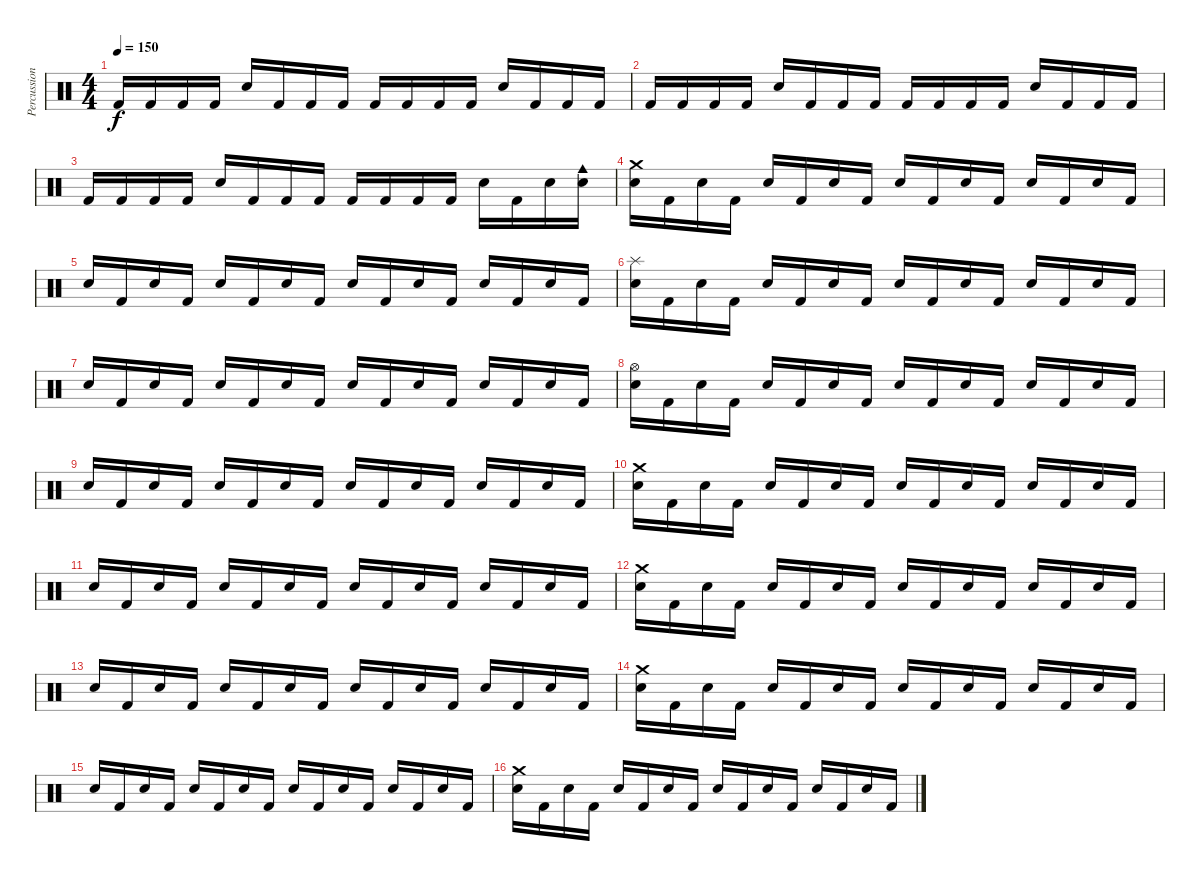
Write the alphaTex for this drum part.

\track ("Percussion" "Percussion") {instrument percussion}
\staff {score}
\articulation defaults
\ts (4 4)
\tempo 150
\clef neutral
\ks c "Kick (hit) 2".16{dy f} "Kick (hit) 2".16 "Kick (hit) 2".16 "Kick (hit) 2".16 "Snare (hit) 2".16 "Kick (hit) 2".16 "Kick (hit) 2".16 "Kick (hit) 2".16 "Kick (hit) 2".16 "Kick (hit) 2".16 "Kick (hit) 2".16 "Kick (hit) 2".16 "Snare (hit) 2".16 "Kick (hit) 2".16 "Kick (hit) 2".16 "Kick (hit) 2".16
|
"Kick (hit) 2".16 "Kick (hit) 2".16 "Kick (hit) 2".16 "Kick (hit) 2".16 "Snare (hit) 2".16 "Kick (hit) 2".16 "Kick (hit) 2".16 "Kick (hit) 2".16 "Kick (hit) 2".16 "Kick (hit) 2".16 "Kick (hit) 2".16 "Kick (hit) 2".16 "Snare (hit) 2".16 "Kick (hit) 2".16 "Kick (hit) 2".16 "Kick (hit) 2".16 |
"Kick (hit) 2".16 "Kick (hit) 2".16 "Kick (hit) 2".16 "Kick (hit) 2".16 "Snare (hit) 2".16 "Kick (hit) 2".16 "Kick (hit) 2".16 "Kick (hit) 2".16 "Kick (hit) 2".16 "Kick (hit) 2".16 "Kick (hit) 2".16 "Kick (hit) 2".16 "Snare (hit) 2".16 "Kick (hit) 2".16 "Snare (hit) 2".16 ("Cowbell medium (hit)" "Snare (hit) 2").16 |
("Crash medium (hit)" "Snare (hit) 2").16 "Kick (hit) 2".16 "Snare (hit) 2".16 "Kick (hit) 2".16 "Snare (hit) 2".16 "Kick (hit) 2".16 "Snare (hit) 2".16 "Kick (hit) 2".16 "Snare (hit) 2".16 "Kick (hit) 2".16 "Snare (hit) 2".16 "Kick (hit) 2".16 "Snare (hit) 2".16 "Kick (hit) 2".16 "Snare (hit) 2".16 "Kick (hit) 2".16 |
"Snare (hit) 2".16 "Kick (hit) 2".16 "Snare (hit) 2".16 "Kick (hit) 2".16 "Snare (hit) 2".16 "Kick (hit) 2".16 "Snare (hit) 2".16 "Kick (hit) 2".16 "Snare (hit) 2".16 "Kick (hit) 2".16 "Snare (hit) 2".16 "Kick (hit) 2".16 "Snare (hit) 2".16 "Kick (hit) 2".16 "Snare (hit) 2".16 "Kick (hit) 2".16 |
("Splash (hit)" "Snare (hit) 2").16 "Kick (hit) 2".16 "Snare (hit) 2".16 "Kick (hit) 2".16 "Snare (hit) 2".16 "Kick (hit) 2".16 "Snare (hit) 2".16 "Kick (hit) 2".16 "Snare (hit) 2".16 "Kick (hit) 2".16 "Snare (hit) 2".16 "Kick (hit) 2".16 "Snare (hit) 2".16 "Kick (hit) 2".16 "Snare (hit) 2".16 "Kick (hit) 2".16 |
"Snare (hit) 2".16 "Kick (hit) 2".16 "Snare (hit) 2".16 "Kick (hit) 2".16 "Snare (hit) 2".16 "Kick (hit) 2".16 "Snare (hit) 2".16 "Kick (hit) 2".16 "Snare (hit) 2".16 "Kick (hit) 2".16 "Snare (hit) 2".16 "Kick (hit) 2".16 "Snare (hit) 2".16 "Kick (hit) 2".16 "Snare (hit) 2".16 "Kick (hit) 2".16 |
("Hi-Hat (open)" "Snare (hit) 2").16 "Kick (hit) 2".16 "Snare (hit) 2".16 "Kick (hit) 2".16 "Snare (hit) 2".16 "Kick (hit) 2".16 "Snare (hit) 2".16 "Kick (hit) 2".16 "Snare (hit) 2".16 "Kick (hit) 2".16 "Snare (hit) 2".16 "Kick (hit) 2".16 "Snare (hit) 2".16 "Kick (hit) 2".16 "Snare (hit) 2".16 "Kick (hit) 2".16 |
"Snare (hit) 2".16 "Kick (hit) 2".16 "Snare (hit) 2".16 "Kick (hit) 2".16 "Snare (hit) 2".16 "Kick (hit) 2".16 "Snare (hit) 2".16 "Kick (hit) 2".16 "Snare (hit) 2".16 "Kick (hit) 2".16 "Snare (hit) 2".16 "Kick (hit) 2".16 "Snare (hit) 2".16 "Kick (hit) 2".16 "Snare (hit) 2".16 "Kick (hit) 2".16 |
("Crash medium (hit)" "Snare (hit) 2").16 "Kick (hit) 2".16 "Snare (hit) 2".16 "Kick (hit) 2".16 "Snare (hit) 2".16 "Kick (hit) 2".16 "Snare (hit) 2".16 "Kick (hit) 2".16 "Snare (hit) 2".16 "Kick (hit) 2".16 "Snare (hit) 2".16 "Kick (hit) 2".16 "Snare (hit) 2".16 "Kick (hit) 2".16 "Snare (hit) 2".16 "Kick (hit) 2".16 |
"Snare (hit) 2".16 "Kick (hit) 2".16 "Snare (hit) 2".16 "Kick (hit) 2".16 "Snare (hit) 2".16 "Kick (hit) 2".16 "Snare (hit) 2".16 "Kick (hit) 2".16 "Snare (hit) 2".16 "Kick (hit) 2".16 "Snare (hit) 2".16 "Kick (hit) 2".16 "Snare (hit) 2".16 "Kick (hit) 2".16 "Snare (hit) 2".16 "Kick (hit) 2".16 |
("Crash medium (hit)" "Snare (hit) 2").16 "Kick (hit) 2".16 "Snare (hit) 2".16 "Kick (hit) 2".16 "Snare (hit) 2".16 "Kick (hit) 2".16 "Snare (hit) 2".16 "Kick (hit) 2".16 "Snare (hit) 2".16 "Kick (hit) 2".16 "Snare (hit) 2".16 "Kick (hit) 2".16 "Snare (hit) 2".16 "Kick (hit) 2".16 "Snare (hit) 2".16 "Kick (hit) 2".16 |
"Snare (hit) 2".16 "Kick (hit) 2".16 "Snare (hit) 2".16 "Kick (hit) 2".16 "Snare (hit) 2".16 "Kick (hit) 2".16 "Snare (hit) 2".16 "Kick (hit) 2".16 "Snare (hit) 2".16 "Kick (hit) 2".16 "Snare (hit) 2".16 "Kick (hit) 2".16 "Snare (hit) 2".16 "Kick (hit) 2".16 "Snare (hit) 2".16 "Kick (hit) 2".16 |
("Crash medium (hit)" "Snare (hit) 2").16 "Kick (hit) 2".16 "Snare (hit) 2".16 "Kick (hit) 2".16 "Snare (hit) 2".16 "Kick (hit) 2".16 "Snare (hit) 2".16 "Kick (hit) 2".16 "Snare (hit) 2".16 "Kick (hit) 2".16 "Snare (hit) 2".16 "Kick (hit) 2".16 "Snare (hit) 2".16 "Kick (hit) 2".16 "Snare (hit) 2".16 "Kick (hit) 2".16 |
"Snare (hit) 2".16 "Kick (hit) 2".16 "Snare (hit) 2".16 "Kick (hit) 2".16 "Snare (hit) 2".16 "Kick (hit) 2".16 "Snare (hit) 2".16 "Kick (hit) 2".16 "Snare (hit) 2".16 "Kick (hit) 2".16 "Snare (hit) 2".16 "Kick (hit) 2".16 "Snare (hit) 2".16 "Kick (hit) 2".16 "Snare (hit) 2".16 "Kick (hit) 2".16 |
("Crash medium (hit)" "Snare (hit) 2").16 "Kick (hit) 2".16 "Snare (hit) 2".16 "Kick (hit) 2".16 "Snare (hit) 2".16 "Kick (hit) 2".16 "Snare (hit) 2".16 "Kick (hit) 2".16 "Snare (hit) 2".16 "Kick (hit) 2".16 "Snare (hit) 2".16 "Kick (hit) 2".16 "Snare (hit) 2".16 "Kick (hit) 2".16 "Snare (hit) 2".16 "Kick (hit) 2".16
